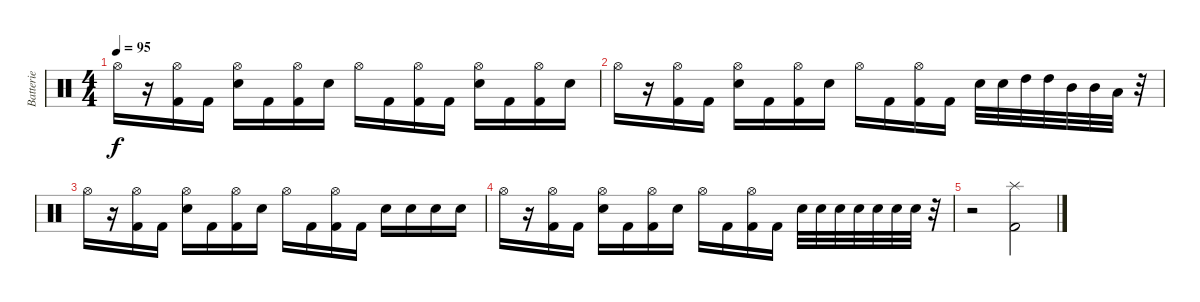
\track ("Batterie" "Batterie") {instrument percussion}
\staff {score}
\articulation defaults
\ts (4 4)
\tempo 95
\clef neutral
\ks c "Hi-Hat (open)".16{dy f}
r.16 ("Hi-Hat (open)" "Kick (hit) 2").16 "Kick (hit) 2".16 ("Hi-Hat (open)" "Electric Snare (hit)").16 "Kick (hit) 2".16 ("Hi-Hat (open)" "Kick (hit) 2").16 "Electric Snare (hit)".16 "Hi-Hat (open)".16 "Kick (hit) 2".16 ("Hi-Hat (open)" "Kick (hit) 2").16 "Kick (hit) 2".16 ("Hi-Hat (open)" "Electric Snare (hit)").16 "Kick (hit) 2".16 ("Hi-Hat (open)" "Kick (hit) 2").16 "Electric Snare (hit)".16 |
"Hi-Hat (open)".16 r.16 ("Hi-Hat (open)" "Kick (hit) 2").16 "Kick (hit) 2".16 ("Hi-Hat (open)" "Electric Snare (hit)").16 "Kick (hit) 2".16 ("Hi-Hat (open)" "Kick (hit) 2").16 "Electric Snare (hit)".16 "Hi-Hat (open)".16 "Kick (hit) 2".16 ("Hi-Hat (open)" "Kick (hit) 2").16 "Kick (hit) 2".16 "Electric Snare (hit)".32 "Electric Snare (hit)".32 "High Tom (hit)".32 "High Tom (hit)".32 "Mid Tom (hit)".32 "Mid Tom (hit)".32 "Low Tom (hit)".32 r.32 |
"Hi-Hat (open)".16 r.16 ("Hi-Hat (open)" "Kick (hit) 2").16 "Kick (hit) 2".16 ("Hi-Hat (open)" "Electric Snare (hit)").16 "Kick (hit) 2".16 ("Hi-Hat (open)" "Kick (hit) 2").16 "Electric Snare (hit)".16 "Hi-Hat (open)".16 "Kick (hit) 2".16 ("Hi-Hat (open)" "Kick (hit) 2").16 "Kick (hit) 2".16 "Electric Snare (hit)".16 "Electric Snare (hit)".16 "Electric Snare (hit)".16 "Electric Snare (hit)".16 |
"Hi-Hat (open)".16 r.16 ("Hi-Hat (open)" "Kick (hit) 2").16 "Kick (hit) 2".16 ("Hi-Hat (open)" "Electric Snare (hit)").16 "Kick (hit) 2".16 ("Hi-Hat (open)" "Kick (hit) 2").16 "Electric Snare (hit)".16 "Hi-Hat (open)".16 "Kick (hit) 2".16 ("Hi-Hat (open)" "Kick (hit) 2").16 "Kick (hit) 2".16 "Electric Snare (hit)".32 "Electric Snare (hit)".32 "Electric Snare (hit)".32 "Electric Snare (hit)".32 "Electric Snare (hit)".32 "Electric Snare (hit)".32 "Electric Snare (hit)".32 r.32 |
r.2 ("Splash (hit)" "Kick (hit) 2").2
